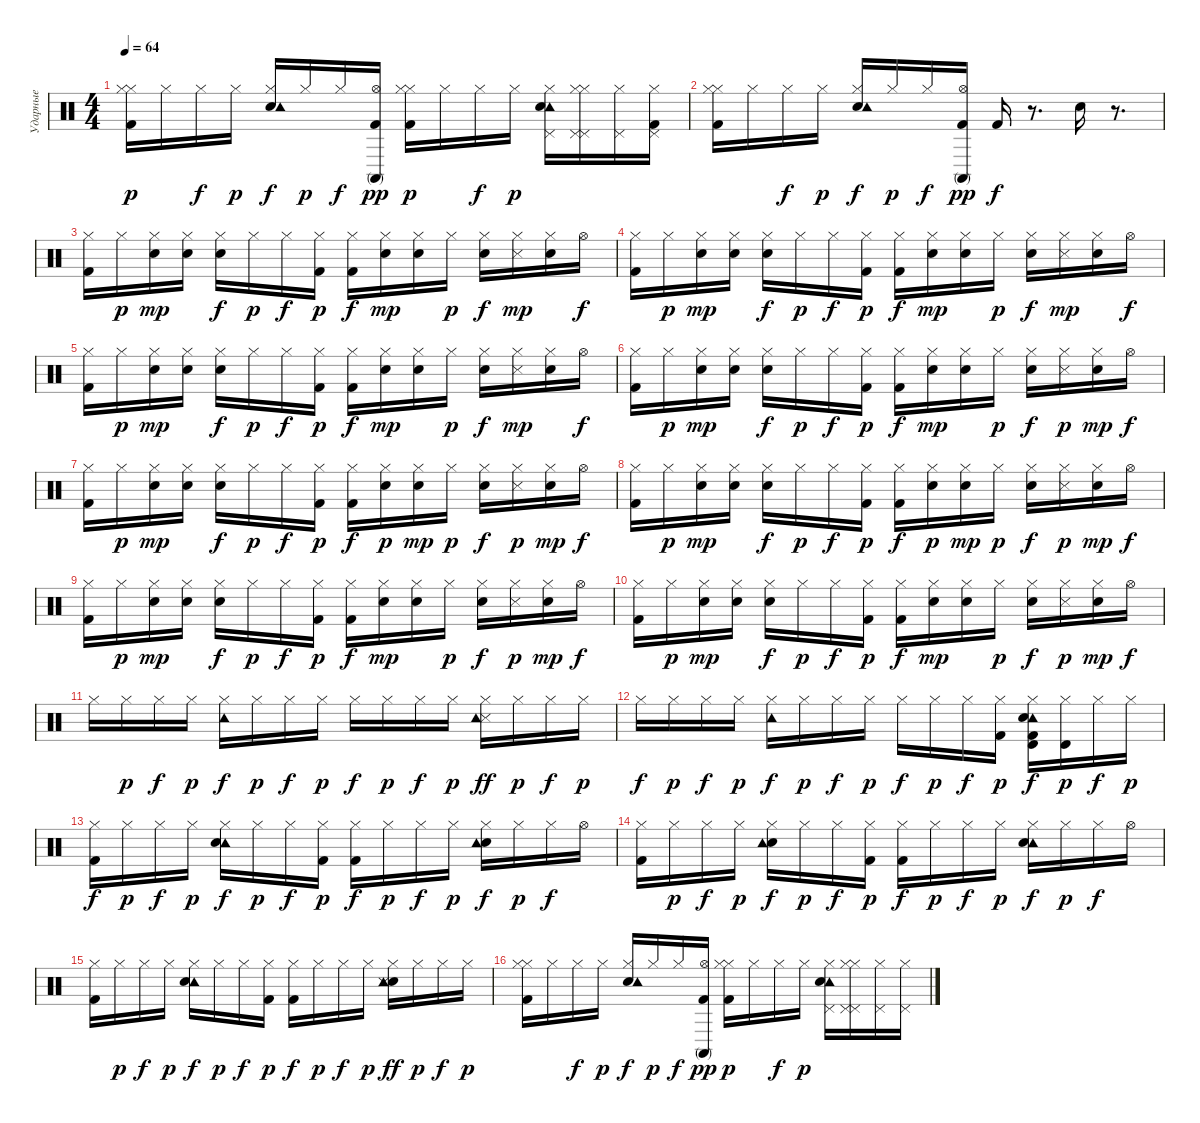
\track ("Ударные" "Ударные") {instrument percussion}
\staff {score}
\articulation defaults
\ts (4 4)
\tempo 64
\clef neutral
\ks c
("Kick (hit) 2" "Hi-Hat (closed)" "Hi-Hat (closed)").16{dy p} "Hi-Hat (closed)".16 "Hi-Hat (closed)".16{dy f} "Hi-Hat (closed)".16{dy p} ("Electric Snare (hit)" "Tambourine (hit)" "Hi-Hat (closed)").16{dy f} "Hi-Hat (closed)".16{dy p} "Hi-Hat (closed)".16{dy f} ("Kick (hit) 2" "Hi-Hat (open)" "Conga high (mute)").16{dy pp} ("Kick (hit) 2" "Hi-Hat (closed)" "Hi-Hat (closed)").16{dy p} "Hi-Hat (closed)".16 "Hi-Hat (closed)".16{dy f} "Hi-Hat (closed)".16{dy p} ("Tambourine (hit)" "Pedal Hi-Hat (hit)" "Electric Snare (hit)" "Hi-Hat (closed)").16 ("Pedal Hi-Hat (hit)" "Hi-Hat (closed)" "Hi-Hat (closed)" "Pedal Hi-Hat (hit)").16 ("Pedal Hi-Hat (hit)" "Hi-Hat (closed)").16 ("Kick (hit) 2" "Pedal Hi-Hat (hit)" "Hi-Hat (closed)").16 |
("Kick (hit) 2" "Hi-Hat (closed)" "Hi-Hat (closed)").16 "Hi-Hat (closed)".16 "Hi-Hat (closed)".16{dy f} "Hi-Hat (closed)".16{dy p} ("Electric Snare (hit)" "Tambourine (hit)" "Hi-Hat (closed)").16{dy f} "Hi-Hat (closed)".16{dy p} "Hi-Hat (closed)".16{dy f} ("Kick (hit) 2" "Hi-Hat (open)" "Conga high (mute)").16{dy pp} "Kick (hit) 2".16{dy f} r.8{d} "Snare (hit) 2".16 r.8{d} |
("Hi-Hat (closed)" "Kick (hit) 2").16 "Hi-Hat (closed)".16{dy p} ("Hi-Hat (closed)" "Metronome (bell)").16{dy mp} ("Hi-Hat (closed)" "Metronome (bell)").16 ("Hi-Hat (closed)" "Electric Snare (hit)").16{dy f} "Hi-Hat (closed)".16{dy p} "Hi-Hat (closed)".16{dy f} ("Hi-Hat (closed)" "Kick (hit) 2").16{dy p} ("Hi-Hat (closed)" "Kick (hit) 2").16{dy f} ("Hi-Hat (closed)" "Metronome (bell)").16{dy mp} ("Metronome (bell)" "Hi-Hat (closed)").16 "Hi-Hat (closed)".16{dy p} ("Electric Snare (hit)" "Hi-Hat (closed)").16{dy f} ("Hi-Hat (closed)" "Snare (side stick) 3").16{dy mp} ("Hi-Hat (closed)" "Hand Clap (hit)").16 "Hi-Hat (open)".16{dy f} |
("Hi-Hat (closed)" "Kick (hit) 2").16 "Hi-Hat (closed)".16{dy p} ("Hi-Hat (closed)" "Metronome (bell)").16{dy mp} ("Hi-Hat (closed)" "Metronome (bell)").16 ("Hi-Hat (closed)" "Electric Snare (hit)").16{dy f} "Hi-Hat (closed)".16{dy p} "Hi-Hat (closed)".16{dy f} ("Hi-Hat (closed)" "Kick (hit) 2").16{dy p} ("Hi-Hat (closed)" "Kick (hit) 2").16{dy f} ("Hi-Hat (closed)" "Metronome (bell)").16{dy mp} ("Metronome (bell)" "Hi-Hat (closed)").16 "Hi-Hat (closed)".16{dy p} ("Electric Snare (hit)" "Hi-Hat (closed)").16{dy f} ("Hi-Hat (closed)" "Snare (side stick) 3").16{dy mp} ("Hi-Hat (closed)" "Hand Clap (hit)").16 "Hi-Hat (open)".16{dy f} |
("Kick (hit) 2" "Hi-Hat (closed)").16 "Hi-Hat (closed)".16{dy p} ("Hi-Hat (closed)" "Metronome (bell)").16{dy mp} ("Hi-Hat (closed)" "Metronome (bell)").16 ("Hi-Hat (closed)" "Electric Snare (hit)").16{dy f} "Hi-Hat (closed)".16{dy p} "Hi-Hat (closed)".16{dy f} ("Hi-Hat (closed)" "Kick (hit) 2").16{dy p} ("Hi-Hat (closed)" "Kick (hit) 2").16{dy f} ("Hi-Hat (closed)" "Metronome (bell)").16{dy mp} ("Metronome (bell)" "Hi-Hat (closed)").16 "Hi-Hat (closed)".16{dy p} ("Electric Snare (hit)" "Hi-Hat (closed)").16{dy f} ("Hi-Hat (closed)" "Snare (side stick) 3").16{dy mp} ("Hi-Hat (closed)" "Hand Clap (hit)").16 "Hi-Hat (open)".16{dy f} |
("Kick (hit) 2" "Hi-Hat (closed)").16 "Hi-Hat (closed)".16{dy p} ("Hi-Hat (closed)" "Metronome (bell)").16{dy mp} ("Hi-Hat (closed)" "Metronome (bell)").16 ("Hi-Hat (closed)" "Electric Snare (hit)").16{dy f} "Hi-Hat (closed)".16{dy p} "Hi-Hat (closed)".16{dy f} ("Kick (hit) 2" "Hi-Hat (closed)").16{dy p} ("Hi-Hat (closed)" "Kick (hit) 2").16{dy f} ("Hi-Hat (closed)" "Metronome (bell)").16{dy mp} ("Metronome (bell)" "Hi-Hat (closed)").16 "Hi-Hat (closed)".16{dy p} ("Electric Snare (hit)" "Hi-Hat (closed)").16{dy f} ("Snare (side stick) 3" "Hi-Hat (closed)").16{dy p} ("Hi-Hat (closed)" "Hand Clap (hit)").16{dy mp} "Hi-Hat (open)".16{dy f} |
("Hi-Hat (closed)" "Kick (hit) 2").16 "Hi-Hat (closed)".16{dy p} ("Hi-Hat (closed)" "Metronome (bell)").16{dy mp} ("Hi-Hat (closed)" "Metronome (bell)").16 ("Hi-Hat (closed)" "Electric Snare (hit)").16{dy f} "Hi-Hat (closed)".16{dy p} "Hi-Hat (closed)".16{dy f} ("Hi-Hat (closed)" "Kick (hit) 2").16{dy p} ("Hi-Hat (closed)" "Kick (hit) 2").16{dy f} ("Metronome (bell)" "Hi-Hat (closed)").16{dy p} ("Metronome (bell)" "Hi-Hat (closed)").16{dy mp} "Hi-Hat (closed)".16{dy p} ("Electric Snare (hit)" "Hi-Hat (closed)").16{dy f} ("Snare (side stick) 3" "Hi-Hat (closed)").16{dy p} ("Hi-Hat (closed)" "Hand Clap (hit)").16{dy mp} "Hi-Hat (open)".16{dy f} |
("Hi-Hat (closed)" "Kick (hit) 2").16 "Hi-Hat (closed)".16{dy p} ("Hi-Hat (closed)" "Metronome (bell)").16{dy mp} ("Hi-Hat (closed)" "Metronome (bell)").16 ("Electric Snare (hit)" "Hi-Hat (closed)").16{dy f} "Hi-Hat (closed)".16{dy p} "Hi-Hat (closed)".16{dy f} ("Kick (hit) 2" "Hi-Hat (closed)").16{dy p} ("Kick (hit) 2" "Hi-Hat (closed)").16{dy f} ("Metronome (bell)" "Hi-Hat (closed)").16{dy p} ("Hi-Hat (closed)" "Metronome (bell)").16{dy mp} "Hi-Hat (closed)".16{dy p} ("Electric Snare (hit)" "Hi-Hat (closed)").16{dy f} ("Snare (side stick) 3" "Hi-Hat (closed)").16{dy p} ("Hand Clap (hit)" "Hi-Hat (closed)").16{dy mp} "Hi-Hat (open)".16{dy f} |
("Kick (hit) 2" "Hi-Hat (closed)").16 "Hi-Hat (closed)".16{dy p} ("Metronome (bell)" "Hi-Hat (closed)").16{dy mp} ("Hi-Hat (closed)" "Metronome (bell)").16 ("Hi-Hat (closed)" "Electric Snare (hit)").16{dy f} "Hi-Hat (closed)".16{dy p} "Hi-Hat (closed)".16{dy f} ("Hi-Hat (closed)" "Kick (hit) 2").16{dy p} ("Hi-Hat (closed)" "Kick (hit) 2").16{dy f} ("Hi-Hat (closed)" "Metronome (bell)").16{dy mp} ("Hi-Hat (closed)" "Metronome (bell)").16 "Hi-Hat (closed)".16{dy p} ("Electric Snare (hit)" "Hi-Hat (closed)").16{dy f} ("Snare (side stick) 3" "Hi-Hat (closed)").16{dy p} ("Hi-Hat (closed)" "Hand Clap (hit)").16{dy mp} "Hi-Hat (open)".16{dy f} |
("Kick (hit) 2" "Hi-Hat (closed)").16 "Hi-Hat (closed)".16{dy p} ("Hi-Hat (closed)" "Metronome (bell)").16{dy mp} ("Hi-Hat (closed)" "Metronome (bell)").16 ("Hi-Hat (closed)" "Electric Snare (hit)").16{dy f} "Hi-Hat (closed)".16{dy p} "Hi-Hat (closed)".16{dy f} ("Kick (hit) 2" "Hi-Hat (closed)").16{dy p} ("Hi-Hat (closed)" "Kick (hit) 2").16{dy f} ("Hi-Hat (closed)" "Metronome (bell)").16{dy mp} ("Hi-Hat (closed)" "Metronome (bell)").16 "Hi-Hat (closed)".16{dy p} ("Electric Snare (hit)" "Hi-Hat (closed)").16{dy f} ("Snare (side stick) 3" "Hi-Hat (closed)").16{dy p} ("Hi-Hat (closed)" "Hand Clap (hit)").16{dy mp} "Hi-Hat (open)".16{dy f} |
"Hi-Hat (closed)".16 "Hi-Hat (closed)".16{dy p} "Hi-Hat (closed)".16{dy f} "Hi-Hat (closed)".16{dy p} ("Hi-Hat (closed)" "Tambourine (hit)").16{dy f} "Hi-Hat (closed)".16{dy p} "Hi-Hat (closed)".16{dy f} "Hi-Hat (closed)".16{dy p} "Hi-Hat (closed)".16{dy f} "Hi-Hat (closed)".16{dy p} "Hi-Hat (closed)".16{dy f} "Hi-Hat (closed)".16{dy p} ("Hi-Hat (closed)" "Snare (side stick) 3" "Tambourine (hit)").16{dy ff} "Hi-Hat (closed)".16{dy p} "Hi-Hat (closed)".16{dy f} "Hi-Hat (closed)".16{dy p} |
"Hi-Hat (closed)".16{dy f} "Hi-Hat (closed)".16{dy p} "Hi-Hat (closed)".16{dy f} "Hi-Hat (closed)".16{dy p} ("Tambourine (hit)" "Hi-Hat (closed)").16{dy f} "Hi-Hat (closed)".16{dy p} "Hi-Hat (closed)".16{dy f} "Hi-Hat (closed)".16{dy p} "Hi-Hat (closed)".16{dy f} "Hi-Hat (closed)".16{dy p} "Hi-Hat (closed)".16{dy f} ("Kick (hit) 2" "Hi-Hat (closed)").16{dy p} ("Kick (hit) 2" "Timbale high (hit)" "Hi-Hat (closed)" "Tambourine (hit)" "Hand Clap (hit)").16{dy f} ("Timbale high (hit)" "Hi-Hat (closed)").16{dy p} "Hi-Hat (closed)".16{dy f} "Hi-Hat (closed)".16{dy p} |
("Kick (hit) 2" "Hi-Hat (closed)").16{dy f} "Hi-Hat (closed)".16{dy p} "Hi-Hat (closed)".16{dy f} "Hi-Hat (closed)".16{dy p} ("Tambourine (hit)" "Electric Snare (hit)" "Hi-Hat (closed)").16{dy f} "Hi-Hat (closed)".16{dy p} "Hi-Hat (closed)".16{dy f} ("Kick (hit) 2" "Hi-Hat (closed)").16{dy p} ("Kick (hit) 2" "Hi-Hat (closed)").16{dy f} "Hi-Hat (closed)".16{dy p} "Hi-Hat (closed)".16{dy f} "Hi-Hat (closed)".16{dy p} ("Electric Snare (hit)" "Tambourine (hit)" "Hi-Hat (closed)").16{dy f} "Hi-Hat (closed)".16{dy p} "Hi-Hat (closed)".16{dy f} "Hi-Hat (open)".16 |
("Hi-Hat (closed)" "Kick (hit) 2").16 "Hi-Hat (closed)".16{dy p} "Hi-Hat (closed)".16{dy f} "Hi-Hat (closed)".16{dy p} ("Electric Snare (hit)" "Hi-Hat (closed)" "Tambourine (hit)").16{dy f} "Hi-Hat (closed)".16{dy p} "Hi-Hat (closed)".16{dy f} ("Kick (hit) 2" "Hi-Hat (closed)").16{dy p} ("Kick (hit) 2" "Hi-Hat (closed)").16{dy f} "Hi-Hat (closed)".16{dy p} "Hi-Hat (closed)".16{dy f} "Hi-Hat (closed)".16{dy p} ("Hi-Hat (closed)" "Tambourine (hit)" "Electric Snare (hit)").16{dy f} "Hi-Hat (closed)".16{dy p} "Hi-Hat (closed)".16{dy f} "Hi-Hat (open)".16 |
("Hi-Hat (closed)" "Kick (hit) 2").16 "Hi-Hat (closed)".16{dy p} "Hi-Hat (closed)".16{dy f} "Hi-Hat (closed)".16{dy p} ("Hi-Hat (closed)" "Tambourine (hit)" "Electric Snare (hit)").16{dy f} "Hi-Hat (closed)".16{dy p} "Hi-Hat (closed)".16{dy f} ("Kick (hit) 2" "Hi-Hat (closed)").16{dy p} ("Kick (hit) 2" "Hi-Hat (closed)").16{dy f} "Hi-Hat (closed)".16{dy p} "Hi-Hat (closed)".16{dy f} "Hi-Hat (closed)".16{dy p} ("Electric Snare (hit)" "Tambourine (hit)" "Snare (side stick) 3" "Hi-Hat (closed)").16{dy ff} "Hi-Hat (closed)".16{dy p} "Hi-Hat (closed)".16{dy f} "Hi-Hat (closed)".16{dy p} |
("Kick (hit) 2" "Hi-Hat (closed)" "Hi-Hat (closed)").16 "Hi-Hat (closed)".16 "Hi-Hat (closed)".16{dy f} "Hi-Hat (closed)".16{dy p} ("Electric Snare (hit)" "Tambourine (hit)" "Hi-Hat (closed)").16{dy f} "Hi-Hat (closed)".16{dy p} "Hi-Hat (closed)".16{dy f} ("Kick (hit) 2" "Hi-Hat (open)" "Conga high (mute)").16{dy pp} ("Kick (hit) 2" "Hi-Hat (closed)" "Hi-Hat (closed)").16{dy p} "Hi-Hat (closed)".16 "Hi-Hat (closed)".16{dy f} "Hi-Hat (closed)".16{dy p} ("Tambourine (hit)" "Pedal Hi-Hat (hit)" "Electric Snare (hit)" "Hi-Hat (closed)").16 ("Pedal Hi-Hat (hit)" "Hi-Hat (closed)" "Hi-Hat (closed)" "Pedal Hi-Hat (hit)").16 ("Pedal Hi-Hat (hit)" "Hi-Hat (closed)").16 ("Pedal Hi-Hat (hit)" "Hi-Hat (closed)").16
